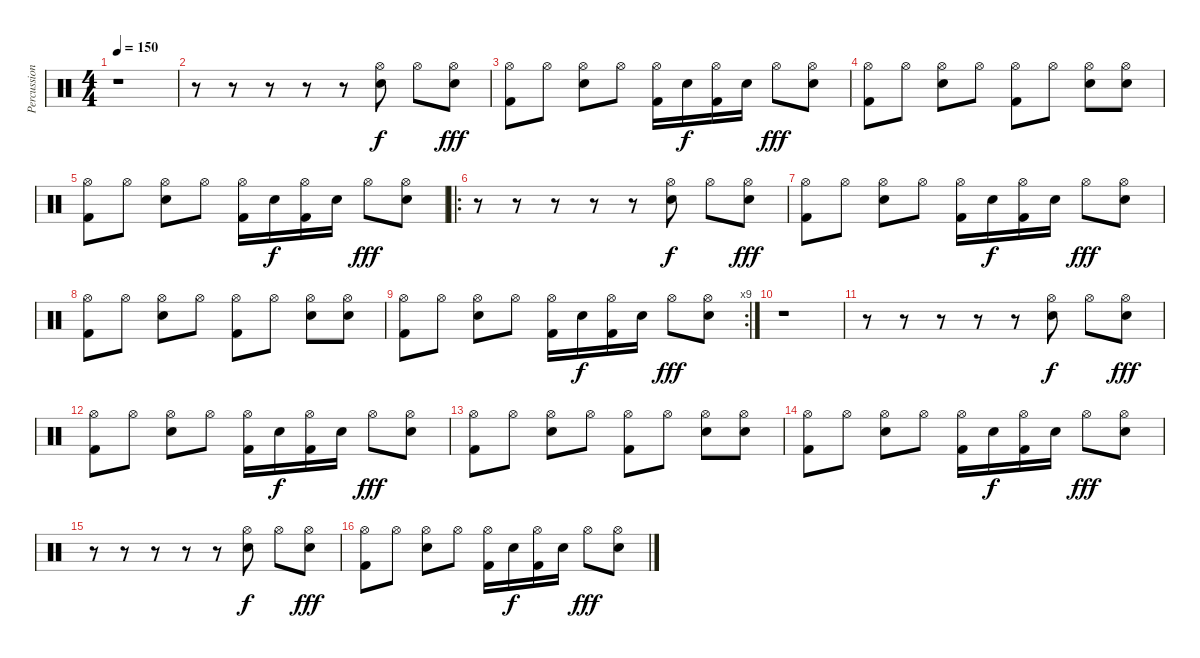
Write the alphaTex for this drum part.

\track ("Percussions" "Percussion") {instrument percussion}
\staff {score}
\articulation defaults
\ts (4 4)
\tempo 150
\clef neutral
\ks c
r.1{dy fff} |
r.8 r.8 r.8 r.8 r.8 ("Hi-Hat (open)" "Electric Snare (hit)").8{dy f} "Hi-Hat (open)".8 ("Hi-Hat (open)" "Electric Snare (hit)").8{dy fff} |
("Hi-Hat (open)" "Kick (hit) 2").8 "Hi-Hat (open)".8 ("Hi-Hat (open)" "Electric Snare (hit)").8 "Hi-Hat (open)".8 ("Hi-Hat (open)" "Kick (hit) 2").16 "Electric Snare (hit)".16{dy f} ("Hi-Hat (open)" "Kick (hit) 2").16 "Electric Snare (hit)".16 "Hi-Hat (open)".8{dy fff} ("Hi-Hat (open)" "Electric Snare (hit)").8 |
("Hi-Hat (open)" "Kick (hit) 2").8 "Hi-Hat (open)".8 ("Hi-Hat (open)" "Electric Snare (hit)").8 "Hi-Hat (open)".8 ("Hi-Hat (open)" "Kick (hit) 2").8 "Hi-Hat (open)".8 ("Hi-Hat (open)" "Electric Snare (hit)").8 ("Hi-Hat (open)" "Electric Snare (hit)").8 |
("Hi-Hat (open)" "Kick (hit) 2").8 "Hi-Hat (open)".8 ("Hi-Hat (open)" "Electric Snare (hit)").8 "Hi-Hat (open)".8 ("Hi-Hat (open)" "Kick (hit) 2").16 "Electric Snare (hit)".16{dy f} ("Hi-Hat (open)" "Kick (hit) 2").16 "Electric Snare (hit)".16 "Hi-Hat (open)".8{dy fff} ("Hi-Hat (open)" "Electric Snare (hit)").8 |
\ro
r.8 r.8 r.8 r.8 r.8 ("Hi-Hat (open)" "Electric Snare (hit)").8{dy f} "Hi-Hat (open)".8 ("Hi-Hat (open)" "Electric Snare (hit)").8{dy fff} |
("Hi-Hat (open)" "Kick (hit) 2").8 "Hi-Hat (open)".8 ("Hi-Hat (open)" "Electric Snare (hit)").8 "Hi-Hat (open)".8 ("Hi-Hat (open)" "Kick (hit) 2").16 "Electric Snare (hit)".16{dy f} ("Hi-Hat (open)" "Kick (hit) 2").16 "Electric Snare (hit)".16 "Hi-Hat (open)".8{dy fff} ("Hi-Hat (open)" "Electric Snare (hit)").8 |
("Hi-Hat (open)" "Kick (hit) 2").8 "Hi-Hat (open)".8 ("Hi-Hat (open)" "Electric Snare (hit)").8 "Hi-Hat (open)".8 ("Hi-Hat (open)" "Kick (hit) 2").8 "Hi-Hat (open)".8 ("Hi-Hat (open)" "Electric Snare (hit)").8 ("Hi-Hat (open)" "Electric Snare (hit)").8 |
\rc 9
("Hi-Hat (open)" "Kick (hit) 2").8 "Hi-Hat (open)".8 ("Hi-Hat (open)" "Electric Snare (hit)").8 "Hi-Hat (open)".8 ("Hi-Hat (open)" "Kick (hit) 2").16 "Electric Snare (hit)".16{dy f} ("Hi-Hat (open)" "Kick (hit) 2").16 "Electric Snare (hit)".16 "Hi-Hat (open)".8{dy fff} ("Hi-Hat (open)" "Electric Snare (hit)").8 |
r.1 |
r.8 r.8 r.8 r.8 r.8 ("Hi-Hat (open)" "Electric Snare (hit)").8{dy f} "Hi-Hat (open)".8 ("Hi-Hat (open)" "Electric Snare (hit)").8{dy fff} |
("Hi-Hat (open)" "Kick (hit) 2").8 "Hi-Hat (open)".8 ("Hi-Hat (open)" "Electric Snare (hit)").8 "Hi-Hat (open)".8 ("Hi-Hat (open)" "Kick (hit) 2").16 "Electric Snare (hit)".16{dy f} ("Hi-Hat (open)" "Kick (hit) 2").16 "Electric Snare (hit)".16 "Hi-Hat (open)".8{dy fff} ("Hi-Hat (open)" "Electric Snare (hit)").8 |
("Hi-Hat (open)" "Kick (hit) 2").8 "Hi-Hat (open)".8 ("Hi-Hat (open)" "Electric Snare (hit)").8 "Hi-Hat (open)".8 ("Hi-Hat (open)" "Kick (hit) 2").8 "Hi-Hat (open)".8 ("Hi-Hat (open)" "Electric Snare (hit)").8 ("Hi-Hat (open)" "Electric Snare (hit)").8 |
("Hi-Hat (open)" "Kick (hit) 2").8 "Hi-Hat (open)".8 ("Hi-Hat (open)" "Electric Snare (hit)").8 "Hi-Hat (open)".8 ("Hi-Hat (open)" "Kick (hit) 2").16 "Electric Snare (hit)".16{dy f} ("Hi-Hat (open)" "Kick (hit) 2").16 "Electric Snare (hit)".16 "Hi-Hat (open)".8{dy fff} ("Hi-Hat (open)" "Electric Snare (hit)").8 |
r.8 r.8 r.8 r.8 r.8 ("Hi-Hat (open)" "Electric Snare (hit)").8{dy f} "Hi-Hat (open)".8 ("Hi-Hat (open)" "Electric Snare (hit)").8{dy fff} |
("Hi-Hat (open)" "Kick (hit) 2").8 "Hi-Hat (open)".8 ("Hi-Hat (open)" "Electric Snare (hit)").8 "Hi-Hat (open)".8 ("Hi-Hat (open)" "Kick (hit) 2").16 "Electric Snare (hit)".16{dy f} ("Hi-Hat (open)" "Kick (hit) 2").16 "Electric Snare (hit)".16 "Hi-Hat (open)".8{dy fff} ("Hi-Hat (open)" "Electric Snare (hit)").8
